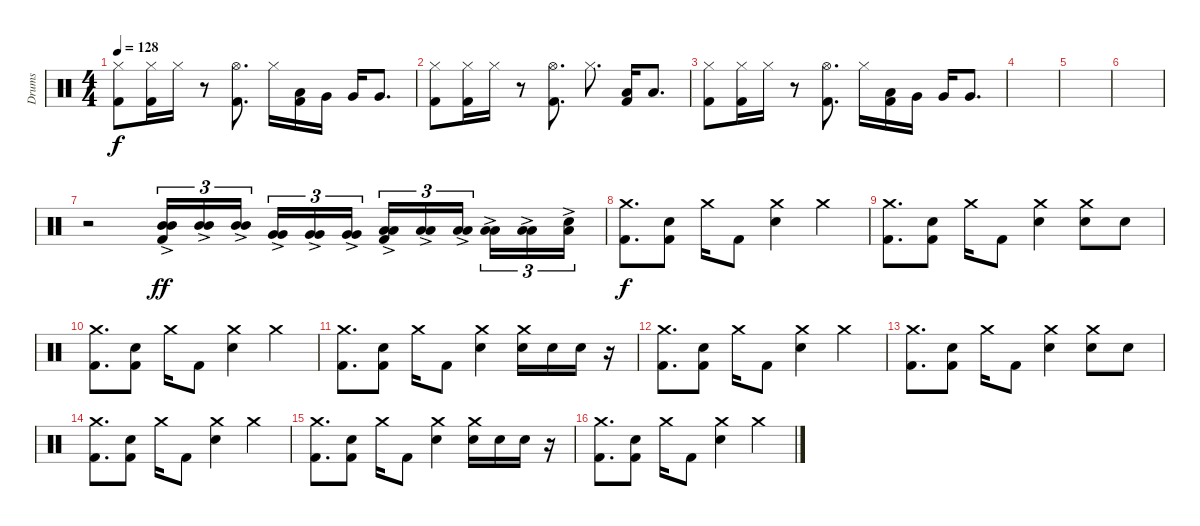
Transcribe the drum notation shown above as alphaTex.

\track ("Drums" "Drums") {instrument percussion}
\staff {score}
\articulation defaults
\ts (4 4)
\tempo 128
\clef neutral
\ks c
("Hi-Hat (closed)" "Kick (hit) 2").8{dy f} ("Hi-Hat (closed)" "Kick (hit) 2").16 "Hi-Hat (closed)".16 r.8 ("Hi-Hat (open)" "Kick (hit) 2").8{d} "Hi-Hat (closed)".16 ("Low Tom (hit)" "Kick (hit) 2").16 "Very Low Tom (hit)".16 "Very Low Tom (hit)".16 "Very Low Tom (hit)".8{d} |
("Hi-Hat (closed)" "Kick (hit) 2").8 ("Hi-Hat (closed)" "Kick (hit) 2").16 "Hi-Hat (closed)".16 r.8 ("Hi-Hat (open)" "Kick (hit) 2").8{d} "Hi-Hat (closed)".8{d} ("Low Tom (hit)" "Kick (hit) 2").16 "Low Tom (hit)".8{d} |
("Hi-Hat (closed)" "Kick (hit) 2").8 ("Hi-Hat (closed)" "Kick (hit) 2").16 "Hi-Hat (closed)".16 r.8 ("Hi-Hat (open)" "Kick (hit) 2").8{d} "Hi-Hat (closed)".16 ("Low Tom (hit)" "Kick (hit) 2").16 "Very Low Tom (hit)".16 "Very Low Tom (hit)".16 "Very Low Tom (hit)".8{d} |
|
|
|
r.2 ("Mid Tom (hit)"{ac} "Mid Tom (hit)"{ac} "Kick (hit) 2"{ac}).16{tu (3 2) dy ff} ("Mid Tom (hit)"{ac} "Mid Tom (hit)").16{tu (3 2)} ("Mid Tom (hit)"{ac} "Mid Tom (hit)").16{tu (3 2) beam splitsecondary} ("Very Low Tom (hit)"{ac} "Very Low Tom (hit)").16{tu (3 2)} ("Very Low Tom (hit)"{ac} "Very Low Tom (hit)"{ac}).16{tu (3 2)} ("Very Low Tom (hit)"{ac} "Very Low Tom (hit)").16{tu (3 2)} ("Low Tom (hit)"{ac} "Low Tom (hit)"{ac} "Kick (hit) 2"{ac}).16{tu (3 2)} ("Low Tom (hit)"{ac} "Low Tom (hit)"{ac}).16{tu (3 2)} ("Low Tom (hit)"{ac} "Low Tom (hit)"{ac}).16{tu (3 2) beam splitsecondary} ("Low Floor Tom (hit)"{ac} "Low Floor Tom (hit)"{ac}).16{tu (3 2)} ("Low Floor Tom (hit)"{ac} "Low Floor Tom (hit)"{ac}).16{tu (3 2)} ("Snare (hit)"{ac} "Low Floor Tom (hit)"{ac}).16{tu (3 2)} |
("Crash medium (hit)" "Kick (hit) 2").8{d dy f} ("Snare (hit) 2" "Kick (hit) 2").8 "Crash medium (hit)".16 "Kick (hit) 2".8 ("Crash medium (hit)" "Snare (hit) 2").4 "Crash medium (hit)".4 |
("Crash medium (hit)" "Kick (hit) 2").8{d} ("Snare (hit) 2" "Kick (hit) 2").8 "Crash medium (hit)".16 "Kick (hit) 2".8 ("Crash medium (hit)" "Snare (hit) 2").4 ("Crash medium (hit)" "Snare (hit) 2").8 "Snare (hit) 2".8 |
("Crash medium (hit)" "Kick (hit) 2").8{d} ("Snare (hit) 2" "Kick (hit) 2").8 "Crash medium (hit)".16 "Kick (hit) 2".8 ("Crash medium (hit)" "Snare (hit) 2").4 "Crash medium (hit)".4 |
("Crash medium (hit)" "Kick (hit) 2").8{d} ("Snare (hit) 2" "Kick (hit) 2").8 "Crash medium (hit)".16 "Kick (hit) 2".8 ("Crash medium (hit)" "Snare (hit) 2").4 ("Crash medium (hit)" "Snare (hit) 2").16 "Snare (hit) 2".16 "Snare (hit) 2".16 r.16 |
("Crash medium (hit)" "Kick (hit) 2").8{d} ("Snare (hit) 2" "Kick (hit) 2").8 "Crash medium (hit)".16 "Kick (hit) 2".8 ("Crash medium (hit)" "Snare (hit) 2").4 "Crash medium (hit)".4 |
("Crash medium (hit)" "Kick (hit) 2").8{d} ("Snare (hit) 2" "Kick (hit) 2").8 "Crash medium (hit)".16 "Kick (hit) 2".8 ("Crash medium (hit)" "Snare (hit) 2").4 ("Crash medium (hit)" "Snare (hit) 2").8 "Snare (hit) 2".8 |
("Crash medium (hit)" "Kick (hit) 2").8{d} ("Snare (hit) 2" "Kick (hit) 2").8 "Crash medium (hit)".16 "Kick (hit) 2".8 ("Crash medium (hit)" "Snare (hit) 2").4 "Crash medium (hit)".4 |
("Crash medium (hit)" "Kick (hit) 2").8{d} ("Snare (hit) 2" "Kick (hit) 2").8 "Crash medium (hit)".16 "Kick (hit) 2".8 ("Crash medium (hit)" "Snare (hit) 2").4 ("Crash medium (hit)" "Snare (hit) 2").16 "Snare (hit) 2".16 "Snare (hit) 2".16 r.16 |
("Crash medium (hit)" "Kick (hit) 2").8{d} ("Snare (hit) 2" "Kick (hit) 2").8 "Crash medium (hit)".16 "Kick (hit) 2".8 ("Crash medium (hit)" "Snare (hit) 2").4 "Crash medium (hit)".4
